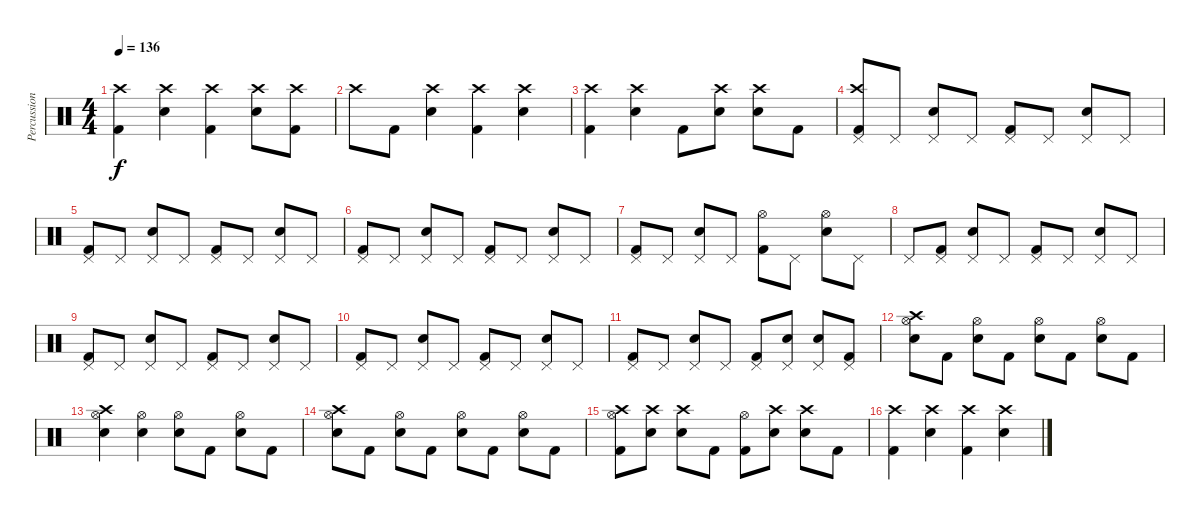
\track ("Percussion" "Percussion") {instrument percussion}
\staff {score}
\articulation defaults
\ts (4 4)
\tempo 136
\clef neutral
\ks c
("Kick (hit) 2" "Crash high (hit)").4{dy f} ("Snare (hit) 2" "Crash high (hit)").4 ("Kick (hit) 2" "Crash high (hit)").4 ("Snare (hit) 2" "Crash high (hit)").8 ("Kick (hit) 2" "Crash high (hit)").8 |
"Crash high (hit)".8 "Kick (hit) 2".8 ("Snare (hit) 2" "Crash high (hit)").4 ("Kick (hit) 2" "Crash high (hit)").4 ("Snare (hit) 2" "Crash high (hit)").4 |
("Kick (hit) 2" "Crash high (hit)").4 ("Snare (hit) 2" "Crash high (hit)").4 "Kick (hit) 2".8 ("Snare (hit) 2" "Crash high (hit)").8 ("Snare (hit) 2" "Crash high (hit)").8 "Kick (hit) 2".8 |
("Kick (hit) 2" "Pedal Hi-Hat (hit)" "Crash high (hit)").8 "Pedal Hi-Hat (hit)".8 ("Snare (hit) 2" "Pedal Hi-Hat (hit)").8 "Pedal Hi-Hat (hit)".8 ("Kick (hit) 2" "Pedal Hi-Hat (hit)").8 "Pedal Hi-Hat (hit)".8 ("Snare (hit) 2" "Pedal Hi-Hat (hit)").8 "Pedal Hi-Hat (hit)".8 |
("Kick (hit) 2" "Pedal Hi-Hat (hit)").8 "Pedal Hi-Hat (hit)".8 ("Snare (hit) 2" "Pedal Hi-Hat (hit)").8 "Pedal Hi-Hat (hit)".8 ("Kick (hit) 2" "Pedal Hi-Hat (hit)").8 "Pedal Hi-Hat (hit)".8 ("Snare (hit) 2" "Pedal Hi-Hat (hit)").8 "Pedal Hi-Hat (hit)".8 |
("Kick (hit) 2" "Pedal Hi-Hat (hit)").8 "Pedal Hi-Hat (hit)".8 ("Snare (hit) 2" "Pedal Hi-Hat (hit)").8 "Pedal Hi-Hat (hit)".8 ("Kick (hit) 2" "Pedal Hi-Hat (hit)").8 "Pedal Hi-Hat (hit)".8 ("Snare (hit) 2" "Pedal Hi-Hat (hit)").8 "Pedal Hi-Hat (hit)".8 |
("Kick (hit) 2" "Pedal Hi-Hat (hit)").8 "Pedal Hi-Hat (hit)".8 ("Snare (hit) 2" "Pedal Hi-Hat (hit)").8 "Pedal Hi-Hat (hit)".8 ("Kick (hit) 2" "Hi-Hat (open)").8 "Pedal Hi-Hat (hit)".8 ("Snare (hit) 2" "Hi-Hat (open)").8 "Pedal Hi-Hat (hit)".8 |
"Pedal Hi-Hat (hit)".8 ("Kick (hit) 2" "Pedal Hi-Hat (hit)").8 ("Snare (hit) 2" "Pedal Hi-Hat (hit)").8 "Pedal Hi-Hat (hit)".8 ("Kick (hit) 2" "Pedal Hi-Hat (hit)").8 "Pedal Hi-Hat (hit)".8 ("Snare (hit) 2" "Pedal Hi-Hat (hit)").8 "Pedal Hi-Hat (hit)".8 |
("Kick (hit) 2" "Pedal Hi-Hat (hit)").8 "Pedal Hi-Hat (hit)".8 ("Snare (hit) 2" "Pedal Hi-Hat (hit)").8 "Pedal Hi-Hat (hit)".8 ("Kick (hit) 2" "Pedal Hi-Hat (hit)").8 "Pedal Hi-Hat (hit)".8 ("Snare (hit) 2" "Pedal Hi-Hat (hit)").8 "Pedal Hi-Hat (hit)".8 |
("Kick (hit) 2" "Pedal Hi-Hat (hit)").8 "Pedal Hi-Hat (hit)".8 ("Snare (hit) 2" "Pedal Hi-Hat (hit)").8 "Pedal Hi-Hat (hit)".8 ("Kick (hit) 2" "Pedal Hi-Hat (hit)").8 "Pedal Hi-Hat (hit)".8 ("Snare (hit) 2" "Pedal Hi-Hat (hit)").8 "Pedal Hi-Hat (hit)".8 |
("Kick (hit) 2" "Pedal Hi-Hat (hit)").8 "Pedal Hi-Hat (hit)".8 ("Snare (hit) 2" "Pedal Hi-Hat (hit)").8 "Pedal Hi-Hat (hit)".8 ("Kick (hit) 2" "Pedal Hi-Hat (hit)").8 ("Snare (hit) 2" "Pedal Hi-Hat (hit)").8 ("Snare (hit) 2" "Pedal Hi-Hat (hit)").8 ("Kick (hit) 2" "Pedal Hi-Hat (hit)").8 |
("Snare (hit) 2" "Hi-Hat (open)" "Crash high (hit)").8 "Kick (hit) 2".8 ("Snare (hit) 2" "Hi-Hat (open)").8 "Kick (hit) 2".8 ("Snare (hit) 2" "Hi-Hat (open)").8 "Kick (hit) 2".8 ("Snare (hit) 2" "Hi-Hat (open)").8 "Kick (hit) 2".8 |
("Snare (hit) 2" "Hi-Hat (open)" "Crash high (hit)").4 ("Snare (hit) 2" "Hi-Hat (open)").4 ("Snare (hit) 2" "Hi-Hat (open)").8 "Kick (hit) 2".8 ("Snare (hit) 2" "Hi-Hat (open)").8 "Kick (hit) 2".8 |
("Snare (hit) 2" "Hi-Hat (open)" "Crash high (hit)").8 "Kick (hit) 2".8 ("Snare (hit) 2" "Hi-Hat (open)").8 "Kick (hit) 2".8 ("Snare (hit) 2" "Hi-Hat (open)").8 "Kick (hit) 2".8 ("Snare (hit) 2" "Hi-Hat (open)").8 "Kick (hit) 2".8 |
("Kick (hit) 2" "Hi-Hat (open)" "Crash high (hit)").8 ("Snare (hit) 2" "Crash high (hit)").8 ("Snare (hit) 2" "Crash high (hit)").8 "Kick (hit) 2".8 ("Kick (hit) 2" "Hi-Hat (open)").8 ("Snare (hit) 2" "Crash high (hit)").8 ("Snare (hit) 2" "Crash high (hit)").8 "Kick (hit) 2".8 |
("Kick (hit) 2" "Crash high (hit)").4 ("Snare (hit) 2" "Crash high (hit)").4 ("Kick (hit) 2" "Crash high (hit)").4 ("Snare (hit) 2" "Crash high (hit)").4
